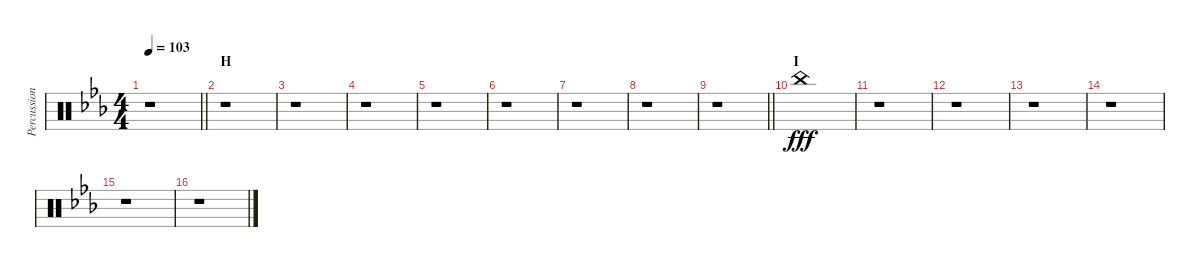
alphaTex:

\track ("Percussion" "Percussion") {instrument percussion}
\staff {score}
\articulation defaults
\ts (4 4)
\tempo 103
\clef neutral
\barLineRight lightlight
\ks eb
r.1{dy fff} |
\section ("" "H")
r.1 |
r.1 |
r.1 |
r.1 |
r.1 |
r.1 |
r.1 |
\barLineRight lightlight
r.1 |
\section ("" "I")
"China (hit)".1 |
r.1 |
r.1 |
r.1 |
r.1 |
r.1 |
r.1
